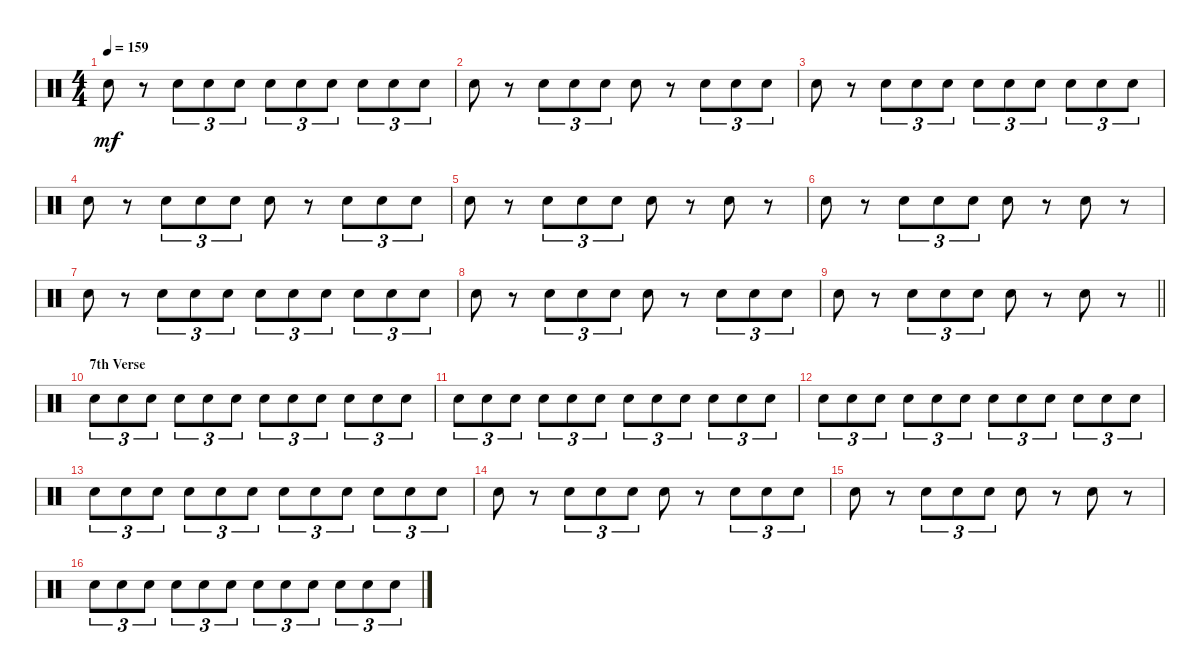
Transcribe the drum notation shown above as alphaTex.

\track "" {instrument percussion}
\staff {score}
\articulation defaults
\ts (4 4)
\tempo 159
\clef neutral
\ks c "Electric Snare (hit)".8{dy mf}
r.8 "Electric Snare (hit)".8{tu (3 2)} "Electric Snare (hit)".8{tu (3 2)} "Electric Snare (hit)".8{tu (3 2)} "Electric Snare (hit)".8{tu (3 2)} "Electric Snare (hit)".8{tu (3 2)} "Electric Snare (hit)".8{tu (3 2)} "Electric Snare (hit)".8{tu (3 2)} "Electric Snare (hit)".8{tu (3 2)} "Electric Snare (hit)".8{tu (3 2)} |
"Electric Snare (hit)".8 r.8 "Electric Snare (hit)".8{tu (3 2)} "Electric Snare (hit)".8{tu (3 2)} "Electric Snare (hit)".8{tu (3 2)} "Electric Snare (hit)".8 r.8 "Electric Snare (hit)".8{tu (3 2)} "Electric Snare (hit)".8{tu (3 2)} "Electric Snare (hit)".8{tu (3 2)} |
"Electric Snare (hit)".8 r.8 "Electric Snare (hit)".8{tu (3 2)} "Electric Snare (hit)".8{tu (3 2)} "Electric Snare (hit)".8{tu (3 2)} "Electric Snare (hit)".8{tu (3 2)} "Electric Snare (hit)".8{tu (3 2)} "Electric Snare (hit)".8{tu (3 2)} "Electric Snare (hit)".8{tu (3 2)} "Electric Snare (hit)".8{tu (3 2)} "Electric Snare (hit)".8{tu (3 2)} |
"Electric Snare (hit)".8 r.8 "Electric Snare (hit)".8{tu (3 2)} "Electric Snare (hit)".8{tu (3 2)} "Electric Snare (hit)".8{tu (3 2)} "Electric Snare (hit)".8 r.8 "Electric Snare (hit)".8{tu (3 2)} "Electric Snare (hit)".8{tu (3 2)} "Electric Snare (hit)".8{tu (3 2)} |
"Electric Snare (hit)".8 r.8 "Electric Snare (hit)".8{tu (3 2)} "Electric Snare (hit)".8{tu (3 2)} "Electric Snare (hit)".8{tu (3 2)} "Electric Snare (hit)".8 r.8 "Electric Snare (hit)".8 r.8 |
"Electric Snare (hit)".8 r.8 "Electric Snare (hit)".8{tu (3 2)} "Electric Snare (hit)".8{tu (3 2)} "Electric Snare (hit)".8{tu (3 2)} "Electric Snare (hit)".8 r.8 "Electric Snare (hit)".8 r.8 |
"Electric Snare (hit)".8 r.8 "Electric Snare (hit)".8{tu (3 2)} "Electric Snare (hit)".8{tu (3 2)} "Electric Snare (hit)".8{tu (3 2)} "Electric Snare (hit)".8{tu (3 2)} "Electric Snare (hit)".8{tu (3 2)} "Electric Snare (hit)".8{tu (3 2)} "Electric Snare (hit)".8{tu (3 2)} "Electric Snare (hit)".8{tu (3 2)} "Electric Snare (hit)".8{tu (3 2)} |
"Electric Snare (hit)".8 r.8 "Electric Snare (hit)".8{tu (3 2)} "Electric Snare (hit)".8{tu (3 2)} "Electric Snare (hit)".8{tu (3 2)} "Electric Snare (hit)".8 r.8 "Electric Snare (hit)".8{tu (3 2)} "Electric Snare (hit)".8{tu (3 2)} "Electric Snare (hit)".8{tu (3 2)} |
\barLineRight lightlight "Electric Snare (hit)".8
r.8 "Electric Snare (hit)".8{tu (3 2)} "Electric Snare (hit)".8{tu (3 2)} "Electric Snare (hit)".8{tu (3 2)} "Electric Snare (hit)".8 r.8 "Electric Snare (hit)".8 r.8 |
\section ("" "7th Verse")
"Electric Snare (hit)".8{tu (3 2)} "Electric Snare (hit)".8{tu (3 2)} "Electric Snare (hit)".8{tu (3 2)} "Electric Snare (hit)".8{tu (3 2)} "Electric Snare (hit)".8{tu (3 2)} "Electric Snare (hit)".8{tu (3 2)} "Electric Snare (hit)".8{tu (3 2)} "Electric Snare (hit)".8{tu (3 2)} "Electric Snare (hit)".8{tu (3 2)} "Electric Snare (hit)".8{tu (3 2)} "Electric Snare (hit)".8{tu (3 2)} "Electric Snare (hit)".8{tu (3 2)} |
"Electric Snare (hit)".8{tu (3 2)} "Electric Snare (hit)".8{tu (3 2)} "Electric Snare (hit)".8{tu (3 2)} "Electric Snare (hit)".8{tu (3 2)} "Electric Snare (hit)".8{tu (3 2)} "Electric Snare (hit)".8{tu (3 2)} "Electric Snare (hit)".8{tu (3 2)} "Electric Snare (hit)".8{tu (3 2)} "Electric Snare (hit)".8{tu (3 2)} "Electric Snare (hit)".8{tu (3 2)} "Electric Snare (hit)".8{tu (3 2)} "Electric Snare (hit)".8{tu (3 2)} |
"Electric Snare (hit)".8{tu (3 2)} "Electric Snare (hit)".8{tu (3 2)} "Electric Snare (hit)".8{tu (3 2)} "Electric Snare (hit)".8{tu (3 2)} "Electric Snare (hit)".8{tu (3 2)} "Electric Snare (hit)".8{tu (3 2)} "Electric Snare (hit)".8{tu (3 2)} "Electric Snare (hit)".8{tu (3 2)} "Electric Snare (hit)".8{tu (3 2)} "Electric Snare (hit)".8{tu (3 2)} "Electric Snare (hit)".8{tu (3 2)} "Electric Snare (hit)".8{tu (3 2)} |
"Electric Snare (hit)".8{tu (3 2)} "Electric Snare (hit)".8{tu (3 2)} "Electric Snare (hit)".8{tu (3 2)} "Electric Snare (hit)".8{tu (3 2)} "Electric Snare (hit)".8{tu (3 2)} "Electric Snare (hit)".8{tu (3 2)} "Electric Snare (hit)".8{tu (3 2)} "Electric Snare (hit)".8{tu (3 2)} "Electric Snare (hit)".8{tu (3 2)} "Electric Snare (hit)".8{tu (3 2)} "Electric Snare (hit)".8{tu (3 2)} "Electric Snare (hit)".8{tu (3 2)} |
"Electric Snare (hit)".8 r.8 "Electric Snare (hit)".8{tu (3 2)} "Electric Snare (hit)".8{tu (3 2)} "Electric Snare (hit)".8{tu (3 2)} "Electric Snare (hit)".8 r.8 "Electric Snare (hit)".8{tu (3 2)} "Electric Snare (hit)".8{tu (3 2)} "Electric Snare (hit)".8{tu (3 2)} |
"Electric Snare (hit)".8 r.8 "Electric Snare (hit)".8{tu (3 2)} "Electric Snare (hit)".8{tu (3 2)} "Electric Snare (hit)".8{tu (3 2)} "Electric Snare (hit)".8 r.8 "Electric Snare (hit)".8 r.8 |
"Electric Snare (hit)".8{tu (3 2)} "Electric Snare (hit)".8{tu (3 2)} "Electric Snare (hit)".8{tu (3 2)} "Electric Snare (hit)".8{tu (3 2)} "Electric Snare (hit)".8{tu (3 2)} "Electric Snare (hit)".8{tu (3 2)} "Electric Snare (hit)".8{tu (3 2)} "Electric Snare (hit)".8{tu (3 2)} "Electric Snare (hit)".8{tu (3 2)} "Electric Snare (hit)".8{tu (3 2)} "Electric Snare (hit)".8{tu (3 2)} "Electric Snare (hit)".8{tu (3 2)}
